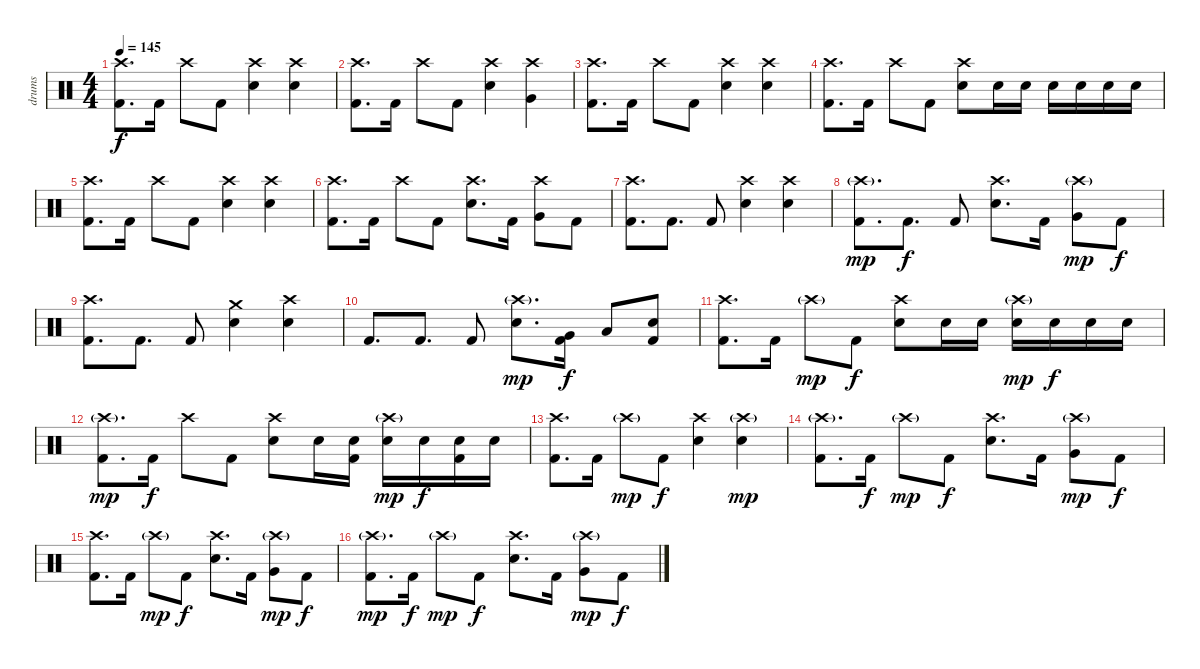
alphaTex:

\track ("drums" "drums") {instrument percussion}
\staff {score}
\articulation defaults
\ts (4 4)
\tempo 145
\clef neutral
\ks c
("Crash high (hit)" "Kick (hit) 2").8{d dy f} "Kick (hit) 2".16 "Crash high (hit)".8 "Kick (hit) 2".8 ("Crash high (hit)" "Snare (hit) 2").4 ("Crash high (hit)" "Snare (hit) 2").4 |
("Crash high (hit)" "Kick (hit) 2").8{d} "Kick (hit) 2".16 "Crash high (hit)".8 "Kick (hit) 2".8 ("Crash high (hit)" "Snare (hit) 2").4 ("Crash high (hit)" "Very Low Tom (hit)").4 |
("Crash high (hit)" "Kick (hit) 2").8{d} "Kick (hit) 2".16 "Crash high (hit)".8 "Kick (hit) 2".8 ("Crash high (hit)" "Snare (hit) 2").4 ("Crash high (hit)" "Snare (hit) 2").4 |
("Crash high (hit)" "Kick (hit) 2").8{d} "Kick (hit) 2".16 "Crash high (hit)".8 "Kick (hit) 2".8 ("Crash high (hit)" "Snare (hit) 2").8 "Snare (hit) 2".16 "Snare (hit) 2".16 "Snare (hit) 2".16 "Snare (hit) 2".16 "Snare (hit) 2".16 "Snare (hit) 2".16 |
("Crash high (hit)" "Kick (hit) 2").8{d} "Kick (hit) 2".16 "Crash high (hit)".8 "Kick (hit) 2".8 ("Crash high (hit)" "Snare (hit) 2").4 ("Crash high (hit)" "Snare (hit) 2").4 |
("Crash high (hit)" "Kick (hit) 2").8{d} "Kick (hit) 2".16 "Crash high (hit)".8 "Kick (hit) 2".8 ("Crash high (hit)" "Snare (hit) 2").8{d} "Kick (hit) 2".16 ("Crash high (hit)" "Very Low Tom (hit)").8 "Kick (hit) 2".8 |
("Crash high (hit)" "Kick (hit) 2").8{d} "Kick (hit) 2".8{d} "Kick (hit) 2".8 ("Crash high (hit)" "Snare (hit) 2").4 ("Crash high (hit)" "Snare (hit) 2").4 |
("Crash high (hit)"{g} "Kick (hit) 2").8{d dy mp} "Kick (hit) 2".8{d dy f} "Kick (hit) 2".8 ("Crash high (hit)" "Snare (hit) 2").8{d} "Kick (hit) 2".16 ("Crash high (hit)"{g} "Very Low Tom (hit)").8{dy mp} "Kick (hit) 2".8{dy f} |
("Crash high (hit)" "Kick (hit) 2").8{d} "Kick (hit) 2".8{d} "Kick (hit) 2".8 ("Crash medium (hit)" "Snare (hit) 2").4 ("Crash high (hit)" "Snare (hit) 2").4 |
"Kick (hit) 2".8{d} "Kick (hit) 2".8{d} "Kick (hit) 2".8 ("Crash high (hit)"{g} "Snare (hit) 2").8{d dy mp} ("Very Low Tom (hit)" "Kick (hit) 2").16{dy f} "Low Floor Tom (hit)".8 ("Snare (hit) 2" "Kick (hit) 2").8 |
("Crash high (hit)" "Kick (hit) 2").8{d} "Kick (hit) 2".16 "Crash high (hit)"{g}.8{dy mp} "Kick (hit) 2".8{dy f} ("Crash high (hit)" "Snare (hit) 2").8 "Snare (hit) 2".16 "Snare (hit) 2".16 ("Crash high (hit)"{g} "Snare (hit) 2").16{dy mp} "Snare (hit) 2".16{dy f} "Snare (hit) 2".16 "Snare (hit) 2".16 |
("Crash high (hit)"{g} "Kick (hit) 2").8{d dy mp} "Kick (hit) 2".16{dy f} "Crash high (hit)".8 "Kick (hit) 2".8 ("Crash high (hit)" "Snare (hit) 2").8 "Snare (hit) 2".16 ("Snare (hit) 2" "Kick (hit) 2").16 ("Crash high (hit)"{g} "Snare (hit) 2").16{dy mp} "Snare (hit) 2".16{dy f} ("Snare (hit) 2" "Kick (hit) 2").16 "Snare (hit) 2".16 |
("Crash high (hit)" "Kick (hit) 2").8{d} "Kick (hit) 2".16 "Crash high (hit)"{g}.8{dy mp} "Kick (hit) 2".8{dy f} ("Crash high (hit)" "Snare (hit) 2").4 ("Crash high (hit)"{g} "Snare (hit) 2").4{dy mp} |
("Crash high (hit)"{g} "Kick (hit) 2").8{d} "Kick (hit) 2".16{dy f} "Crash high (hit)"{g}.8{dy mp} "Kick (hit) 2".8{dy f} ("Crash high (hit)" "Snare (hit) 2").8{d} "Kick (hit) 2".16 ("Crash high (hit)"{g} "Very Low Tom (hit)").8{dy mp} "Kick (hit) 2".8{dy f} |
("Crash high (hit)" "Kick (hit) 2").8{d} "Kick (hit) 2".16 "Crash high (hit)"{g}.8{dy mp} "Kick (hit) 2".8{dy f} ("Crash high (hit)" "Snare (hit) 2").8{d} "Kick (hit) 2".16 ("Crash high (hit)"{g} "Very Low Tom (hit)").8{dy mp} "Kick (hit) 2".8{dy f} |
("Crash high (hit)"{g} "Kick (hit) 2").8{d dy mp} "Kick (hit) 2".16{dy f} "Crash high (hit)"{g}.8{dy mp} "Kick (hit) 2".8{dy f} ("Crash high (hit)" "Snare (hit) 2").8{d} "Kick (hit) 2".16 ("Crash high (hit)"{g} "Very Low Tom (hit)").8{dy mp} "Kick (hit) 2".8{dy f}
